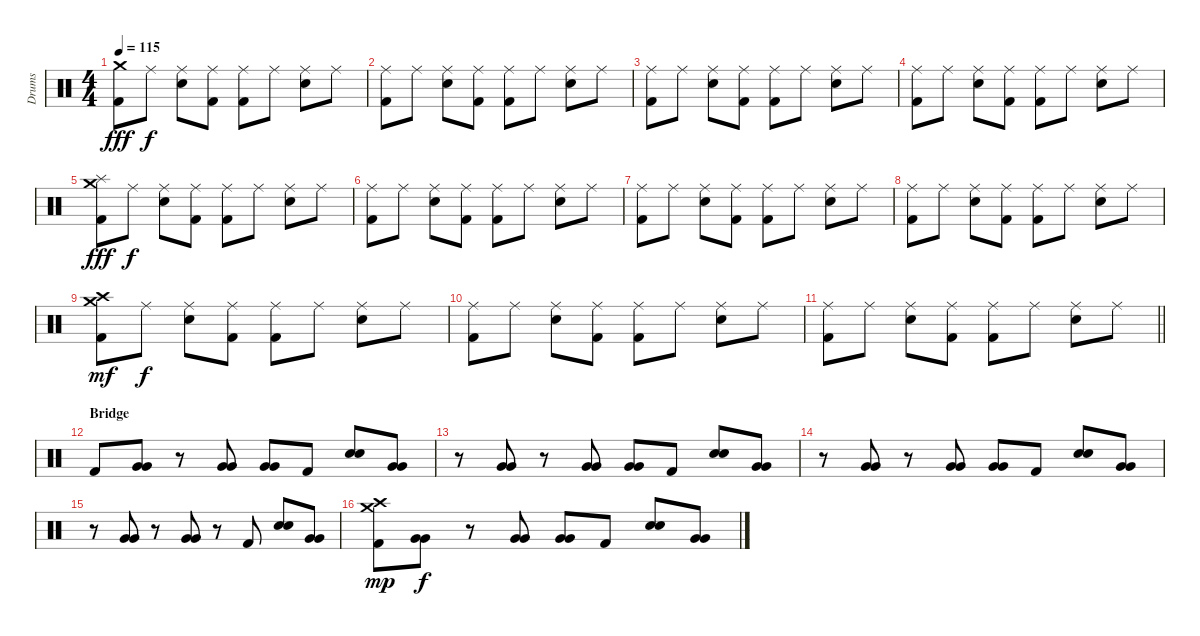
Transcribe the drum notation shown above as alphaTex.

\track ("Drums" "Drums") {instrument percussion}
\staff {score}
\articulation defaults
\ts (4 4)
\tempo 115
\clef neutral
\ks c
("Crash medium (hit)" "Kick (hit) 2").8{dy fff} "Ride (middle)".8{dy f} ("Ride (middle)" "Electric Snare (hit)").8 ("Ride (middle)" "Kick (hit) 2").8 ("Ride (middle)" "Kick (hit) 2").8 "Ride (middle)".8 ("Ride (middle)" "Electric Snare (hit)").8 "Ride (middle)".8 |
("Ride (middle)" "Kick (hit) 2").8 "Ride (middle)".8 ("Ride (middle)" "Electric Snare (hit)").8 ("Ride (middle)" "Kick (hit) 2").8 ("Ride (middle)" "Kick (hit) 2").8 "Ride (middle)".8 ("Ride (middle)" "Electric Snare (hit)").8 "Ride (middle)".8 |
("Ride (middle)" "Kick (hit) 2").8 "Ride (middle)".8 ("Ride (middle)" "Electric Snare (hit)").8 ("Ride (middle)" "Kick (hit) 2").8 ("Ride (middle)" "Kick (hit) 2").8 "Ride (middle)".8 ("Ride (middle)" "Electric Snare (hit)").8 "Ride (middle)".8 |
("Ride (middle)" "Kick (hit) 2").8 "Ride (middle)".8 ("Ride (middle)" "Electric Snare (hit)").8 ("Ride (middle)" "Kick (hit) 2").8 ("Ride (middle)" "Kick (hit) 2").8 "Ride (middle)".8 ("Ride (middle)" "Electric Snare (hit)").8 "Ride (middle)".8 |
("Crash medium (hit)" "Splash (hit)" "Kick (hit) 2").8{dy fff} "Ride (middle)".8{dy f} ("Ride (middle)" "Electric Snare (hit)").8 ("Ride (middle)" "Kick (hit) 2").8 ("Ride (middle)" "Kick (hit) 2").8 "Ride (middle)".8 ("Ride (middle)" "Electric Snare (hit)").8 "Ride (middle)".8 |
("Ride (middle)" "Kick (hit) 2").8 "Ride (middle)".8 ("Ride (middle)" "Electric Snare (hit)").8 ("Ride (middle)" "Kick (hit) 2").8 ("Ride (middle)" "Kick (hit) 2").8 "Ride (middle)".8 ("Ride (middle)" "Electric Snare (hit)").8 "Ride (middle)".8 |
("Ride (middle)" "Kick (hit) 2").8 "Ride (middle)".8 ("Ride (middle)" "Electric Snare (hit)").8 ("Ride (middle)" "Kick (hit) 2").8 ("Ride (middle)" "Kick (hit) 2").8 "Ride (middle)".8 ("Ride (middle)" "Electric Snare (hit)").8 "Ride (middle)".8 |
("Ride (middle)" "Kick (hit) 2").8 "Ride (middle)".8 ("Ride (middle)" "Electric Snare (hit)").8 ("Ride (middle)" "Kick (hit) 2").8 ("Ride (middle)" "Kick (hit) 2").8 "Ride (middle)".8 ("Ride (middle)" "Electric Snare (hit)").8 "Ride (middle)".8 |
("Crash medium (hit)" "Crash high (hit)" "Kick (hit) 2").8{dy mf} "Ride (middle)".8{dy f} ("Ride (middle)" "Electric Snare (hit)").8 ("Ride (middle)" "Kick (hit) 2").8 ("Ride (middle)" "Kick (hit) 2").8 "Ride (middle)".8 ("Ride (middle)" "Electric Snare (hit)").8 "Ride (middle)".8 |
("Ride (middle)" "Kick (hit) 2").8 "Ride (middle)".8 ("Ride (middle)" "Electric Snare (hit)").8 ("Ride (middle)" "Kick (hit) 2").8 ("Ride (middle)" "Kick (hit) 2").8 "Ride (middle)".8 ("Ride (middle)" "Electric Snare (hit)").8 "Ride (middle)".8 |
\barLineRight lightlight
("Ride (middle)" "Kick (hit) 2").8 "Ride (middle)".8 ("Ride (middle)" "Electric Snare (hit)").8 ("Ride (middle)" "Kick (hit) 2").8 ("Ride (middle)" "Kick (hit) 2").8 "Ride (middle)".8 ("Ride (middle)" "Electric Snare (hit)").8 "Ride (middle)".8 |
\section ("" "Bridge")
"Kick (hit) 2".8 ("Very Low Tom (hit)" "Very Low Tom (hit)").8{bu 240} r.8 ("Very Low Tom (hit)" "Very Low Tom (hit)").8{bu 240} ("Very Low Tom (hit)" "Very Low Tom (hit)").8{bu 240} "Kick (hit) 2".8 ("Electric Snare (hit)" "Electric Snare (hit)").8{bu 240} ("Very Low Tom (hit)" "Very Low Tom (hit)").8{bd 240} |
r.8 ("Very Low Tom (hit)" "Very Low Tom (hit)").8{bu 240} r.8 ("Very Low Tom (hit)" "Very Low Tom (hit)").8{bu 240} ("Very Low Tom (hit)" "Very Low Tom (hit)").8{bu 240} "Kick (hit) 2".8 ("Electric Snare (hit)" "Electric Snare (hit)").8{bu 240} ("Very Low Tom (hit)" "Very Low Tom (hit)").8{bu 120} |
r.8 ("Very Low Tom (hit)" "Very Low Tom (hit)").8{bu 240} r.8 ("Very Low Tom (hit)" "Very Low Tom (hit)").8{bu 240} ("Very Low Tom (hit)" "Very Low Tom (hit)").8{bu 240} "Kick (hit) 2".8 ("Electric Snare (hit)" "Electric Snare (hit)").8{bu 240} ("Very Low Tom (hit)" "Very Low Tom (hit)").8{bu 240} |
r.8 ("Very Low Tom (hit)" "Very Low Tom (hit)").8{bu 240} r.8 ("Very Low Tom (hit)" "Very Low Tom (hit)").8{bu 240} r.8 "Kick (hit) 2".8 ("Electric Snare (hit)" "Electric Snare (hit)").8{bu 240} ("Very Low Tom (hit)" "Very Low Tom (hit)").8{bu 120} |
("Crash medium (hit)" "Crash high (hit)" "Kick (hit) 2").8{dy mp} ("Very Low Tom (hit)" "Very Low Tom (hit)").8{bu 240 dy f} r.8 ("Very Low Tom (hit)" "Very Low Tom (hit)").8{bu 240} ("Very Low Tom (hit)" "Very Low Tom (hit)").8{bu 240} "Kick (hit) 2".8 ("Electric Snare (hit)" "Electric Snare (hit)").8{bu 240} ("Very Low Tom (hit)" "Very Low Tom (hit)").8{bd 240}
